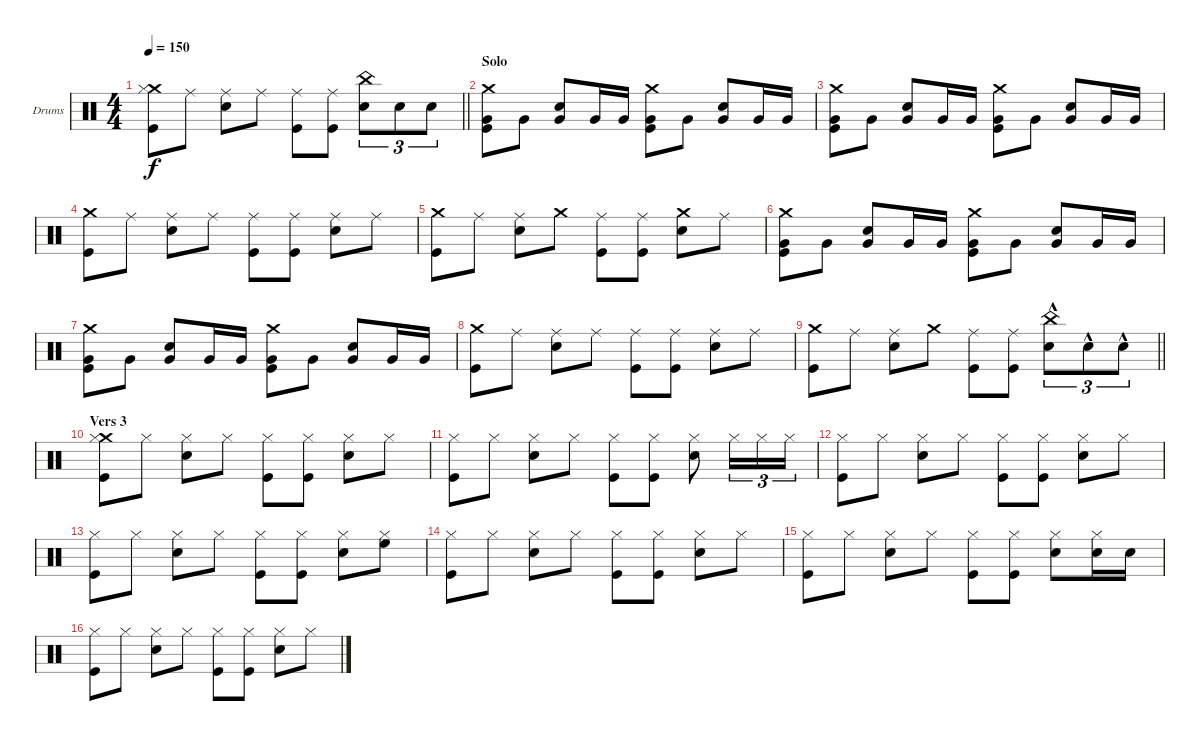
\bracketExtendMode groupsimilarinstruments
\firstSystemTrackNameOrientation horizontal
\otherSystemsTrackNameOrientation horizontal
\track ("Drumkit" "Drums") {instrument percussion}
\staff {score}
\articulation defaults
\ts (4 4)
\tempo 150
\clef neutral
\barLineRight lightlight
\ks c
("Crash medium (hit)" "Kick (hit)" "Hi-Hat (closed)").8{dy f} "Ride (middle)".8 ("Ride (middle)" "Snare (hit) 2").8 "Ride (middle)".8 ("Ride (middle)" "Kick (hit)").8 ("Ride (middle)" "Kick (hit)").8 ("China (hit)" "Snare (hit) 2").8{tu (3 2)} "Snare (hit) 2".8{tu (3 2)} "Snare (hit) 2".8{tu (3 2)} |
\section ("" "Solo")
("Very Low Tom (hit)" "Kick (hit)" "Crash medium (hit)").8 "Very Low Tom (hit)".8 ("Very Low Tom (hit)" "Snare (hit) 2").8 "Very Low Tom (hit)".16 "Very Low Tom (hit)".16 ("Very Low Tom (hit)" "Kick (hit)" "Crash medium (hit)").8 "Very Low Tom (hit)".8 ("Very Low Tom (hit)" "Snare (hit) 2").8 "Very Low Tom (hit)".16 "Very Low Tom (hit)".16 |
("Very Low Tom (hit)" "Kick (hit)" "Crash medium (hit)").8 "Very Low Tom (hit)".8 ("Very Low Tom (hit)" "Snare (hit) 2").8 "Very Low Tom (hit)".16 "Very Low Tom (hit)".16 ("Very Low Tom (hit)" "Kick (hit)" "Crash medium (hit)").8 "Very Low Tom (hit)".8 ("Very Low Tom (hit)" "Snare (hit) 2").8 "Very Low Tom (hit)".16 "Very Low Tom (hit)".16 |
("Kick (hit)" "Crash medium (hit)").8 "Ride (middle)".8 ("Ride (middle)" "Snare (hit) 2").8 "Ride (middle)".8 ("Ride (middle)" "Kick (hit)").8 ("Ride (middle)" "Kick (hit)").8 ("Ride (middle)" "Snare (hit) 2").8 "Ride (middle)".8 |
("Kick (hit)" "Crash medium (hit)").8 "Ride (middle)".8 ("Ride (middle)" "Snare (hit) 2").8 "Crash medium (hit)".8 ("Ride (middle)" "Kick (hit)").8 ("Ride (middle)" "Kick (hit)").8 ("Crash medium (hit)" "Snare (hit) 2").8 "Ride (middle)".8 |
("Very Low Tom (hit)" "Kick (hit)" "Crash medium (hit)").8 "Very Low Tom (hit)".8 ("Very Low Tom (hit)" "Snare (hit) 2").8 "Very Low Tom (hit)".16 "Very Low Tom (hit)".16 ("Very Low Tom (hit)" "Kick (hit)" "Crash medium (hit)").8 "Very Low Tom (hit)".8 ("Very Low Tom (hit)" "Snare (hit) 2").8 "Very Low Tom (hit)".16 "Very Low Tom (hit)".16 |
("Very Low Tom (hit)" "Kick (hit)" "Crash medium (hit)").8 "Very Low Tom (hit)".8 ("Very Low Tom (hit)" "Snare (hit) 2").8 "Very Low Tom (hit)".16 "Very Low Tom (hit)".16 ("Very Low Tom (hit)" "Kick (hit)" "Crash medium (hit)").8 "Very Low Tom (hit)".8 ("Very Low Tom (hit)" "Snare (hit) 2").8 "Very Low Tom (hit)".16 "Very Low Tom (hit)".16 |
("Kick (hit)" "Crash medium (hit)").8 "Ride (middle)".8 ("Ride (middle)" "Snare (hit) 2").8 "Ride (middle)".8 ("Ride (middle)" "Kick (hit)").8 ("Ride (middle)" "Kick (hit)").8 ("Ride (middle)" "Snare (hit) 2").8 "Ride (middle)".8 |
\barLineRight lightlight
("Kick (hit)" "Crash medium (hit)").8 "Ride (middle)".8 ("Ride (middle)" "Snare (hit) 2").8 "Crash medium (hit)".8 ("Ride (middle)" "Kick (hit)").8 ("Ride (middle)" "Kick (hit)").8 ("China (hit)" "Snare (hit) 2"{hac}).8{tu (3 2)} "Snare (hit) 2"{hac}.8{tu (3 2)} "Snare (hit) 2"{hac}.8{tu (3 2)} |
\section ("" "Vers 3")
("Crash medium (hit)" "Kick (hit)" "Hi-Hat (closed)").8 "Hi-Hat (closed)".8 ("Snare (hit) 2" "Hi-Hat (closed)").8 "Hi-Hat (closed)".8 ("Kick (hit)" "Hi-Hat (closed)").8 ("Kick (hit)" "Hi-Hat (closed)").8 ("Snare (hit) 2" "Hi-Hat (closed)").8 "Hi-Hat (closed)".8 |
("Kick (hit)" "Hi-Hat (closed)").8 "Hi-Hat (closed)".8 ("Snare (hit) 2" "Hi-Hat (closed)").8 "Hi-Hat (closed)".8 ("Kick (hit)" "Hi-Hat (closed)").8 ("Kick (hit)" "Hi-Hat (closed)").8 ("Snare (hit) 2" "Hi-Hat (closed)").8 "Hi-Hat (closed)".16{tu (3 2)} "Hi-Hat (closed)".16{tu (3 2)} "Hi-Hat (closed)".16{tu (3 2)} |
("Hi-Hat (closed)" "Kick (hit)").8 "Hi-Hat (closed)".8 ("Snare (hit) 2" "Hi-Hat (closed)").8 "Hi-Hat (closed)".8 ("Kick (hit)" "Hi-Hat (closed)").8 ("Kick (hit)" "Hi-Hat (closed)").8 ("Snare (hit) 2" "Hi-Hat (closed)").8 "Hi-Hat (closed)".8 |
("Kick (hit)" "Hi-Hat (closed)").8 "Hi-Hat (closed)".8 ("Snare (hit) 2" "Hi-Hat (closed)").8 "Hi-Hat (closed)".8 ("Kick (hit)" "Hi-Hat (closed)").8 ("Kick (hit)" "Hi-Hat (closed)").8 ("Snare (hit) 2" "Hi-Hat (closed)").8 ("High Floor Tom (hit)" "Hi-Hat (closed)").8 |
("Kick (hit)" "Hi-Hat (closed)").8 "Hi-Hat (closed)".8 ("Snare (hit) 2" "Hi-Hat (closed)").8 "Hi-Hat (closed)".8 ("Kick (hit)" "Hi-Hat (closed)").8 ("Kick (hit)" "Hi-Hat (closed)").8 ("Snare (hit) 2" "Hi-Hat (closed)").8 "Hi-Hat (closed)".8 |
("Kick (hit)" "Hi-Hat (closed)").8 "Hi-Hat (closed)".8 ("Snare (hit) 2" "Hi-Hat (closed)").8 "Hi-Hat (closed)".8 ("Kick (hit)" "Hi-Hat (closed)").8 ("Kick (hit)" "Hi-Hat (closed)").8 ("Snare (hit) 2" "Hi-Hat (closed)").8 ("Snare (hit) 2" "Hi-Hat (closed)").16 "Snare (hit) 2".16 |
("Kick (hit)" "Hi-Hat (closed)").8 "Hi-Hat (closed)".8 ("Snare (hit) 2" "Hi-Hat (closed)").8 "Hi-Hat (closed)".8 ("Kick (hit)" "Hi-Hat (closed)").8 ("Kick (hit)" "Hi-Hat (closed)").8 ("Snare (hit) 2" "Hi-Hat (closed)").8 "Hi-Hat (closed)".8
